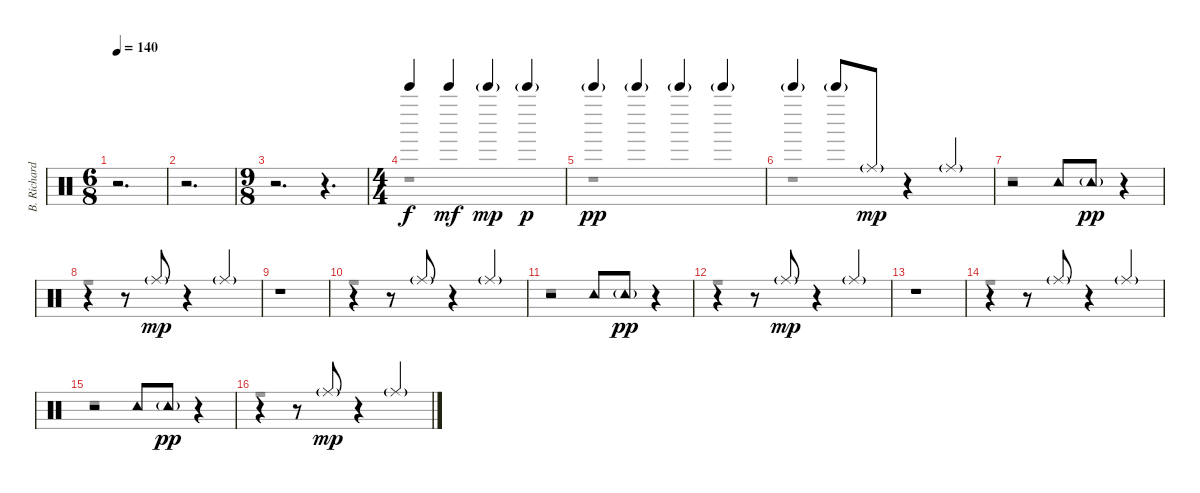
\track ("B. Richardson Drums/Percussion" "B. Richard") {instrument percussion}
\staff {score}
\articulation defaults
\voice
\ts (6 8)
\tempo 140
\clef neutral
\ks c
r.2{d dy mf} |
r.2{d} |
\ts (9 8)
r.2{d} r.4{d} |
\ts (4 4)
"Bell Tree (hit)".4{dy f} "Bell Tree (hit)".4{dy mf} "Bell Tree (hit)"{g}.4{dy mp} "Bell Tree (hit)"{g}.4{dy p} |
"Bell Tree (hit)"{g}.4{dy pp} "Bell Tree (hit)"{g}.4 "Bell Tree (hit)"{g}.4 "Bell Tree (hit)"{g}.4 |
"Bell Tree (hit)"{g}.4 "Bell Tree (hit)"{g}.8 "Ride (middle)"{g}.8{dy mp} r.4 "Ride (middle)"{g}.4 |
r.2 "Tambourine (hit)".8 "Tambourine (hit)"{g}.8{dy pp} r.4 |
r.4 r.8 "Ride (middle)"{g}.8{dy mp} r.4 "Ride (middle)"{g}.4 |
r.1 |
r.4 r.8 "Ride (middle)"{g}.8 r.4 "Ride (middle)"{g}.4 |
r.2 "Tambourine (hit)".8 "Tambourine (hit)"{g}.8{dy pp} r.4 |
r.4 r.8 "Ride (middle)"{g}.8{dy mp} r.4 "Ride (middle)"{g}.4 |
r.1 |
r.4 r.8 "Ride (middle)"{g}.8 r.4 "Ride (middle)"{g}.4 |
r.2 "Tambourine (hit)".8 "Tambourine (hit)"{g}.8{dy pp} r.4 |
r.4 r.8 "Ride (middle)"{g}.8{dy mp} r.4 "Ride (middle)"{g}.4
\voice
\clef neutral
\ottava regular
\simile none
\ks c
r.2{d dy fff} |
r.2{d} |
r.2{d} r.4{d} |
r.1 |
r.1 |
r.1 |
r.1 |
r.1 |
r.1 |
r.1 |
r.1 |
r.1 |
r.1 |
r.1 |
r.1 |
r.1
